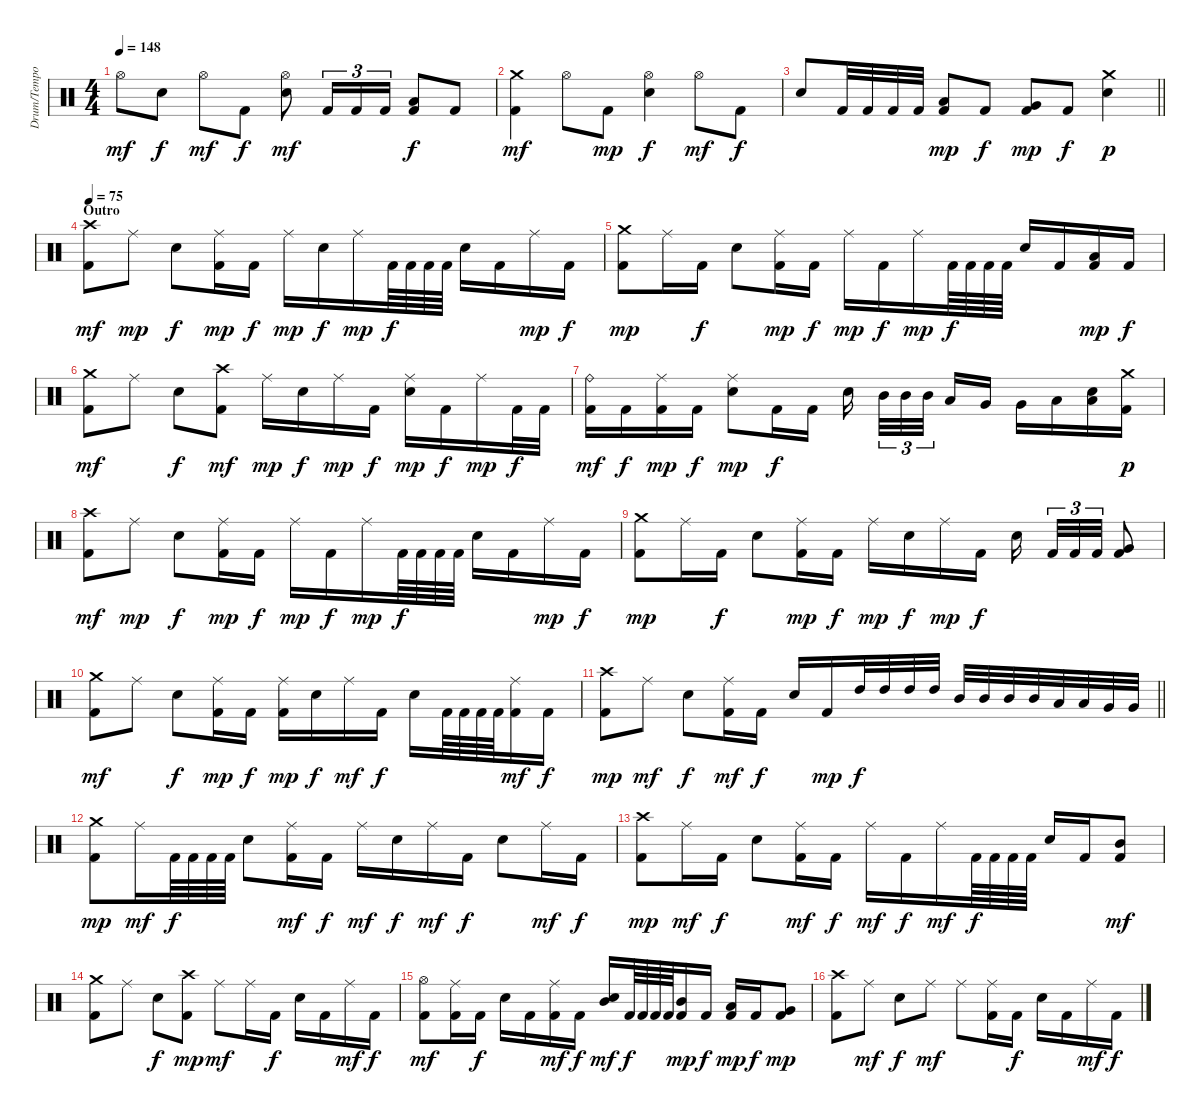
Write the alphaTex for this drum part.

\track ("Drum/Tempo" "Drum/Tempo") {instrument percussion}
\staff {score}
\articulation defaults
\ts (4 4)
\tempo 148
\clef neutral
\ks c "Hi-Hat (open)".8{dy mf} "Electric Snare (hit)".8{dy f} "Hi-Hat (open)".8{dy mf} "Kick (hit) 2".8{dy f}
("Electric Snare (hit)" "Hi-Hat (open)").8{dy mf} "Kick (hit) 2".16{tu (3 2)} "Kick (hit) 2".16{tu (3 2)} "Kick (hit) 2".16{tu (3 2)} ("Kick (hit) 2" "Low Tom (hit)").8{dy f} "Kick (hit) 2".8 |
("Kick (hit) 2" "Crash medium (hit)").4{dy mf} "Hi-Hat (open)".8 "Kick (hit) 2".8{dy mp} ("Electric Snare (hit)" "Hi-Hat (open)").4{dy f} "Hi-Hat (open)".8{dy mf} "Kick (hit) 2".8{dy f} |
\barLineRight lightlight "Electric Snare (hit)".8 "Kick (hit) 2".32 "Kick (hit) 2".32 "Kick (hit) 2".32 "Kick (hit) 2".32
("Kick (hit) 2" "Low Tom (hit)").8{dy mp} "Kick (hit) 2".8{dy f} ("Kick (hit) 2" "Very Low Tom (hit)").8{dy mp} "Kick (hit) 2".8{dy f} ("Electric Snare (hit)" "Crash medium (hit)").4{dy p} |
\section ("" "Outro")
\tempo 75
("Kick (hit) 2" "Crash high (hit)").8{dy mf} "Ride (middle)".8{dy mp} "Electric Snare (hit)".8{dy f} ("Kick (hit) 2" "Ride (middle)").16{dy mp} "Kick (hit) 2".16{dy f} "Ride (middle)".16{dy mp} "Electric Snare (hit)".16{dy f} "Ride (middle)".16{dy mp} "Kick (hit) 2".64{dy f} "Kick (hit) 2".64 "Kick (hit) 2".64 "Kick (hit) 2".64 "Electric Snare (hit)".16 "Kick (hit) 2".16 "Ride (middle)".16{dy mp} "Kick (hit) 2".16{dy f} |
("Kick (hit) 2" "Crash medium (hit)").8{dy mp} "Ride (middle)".16 "Kick (hit) 2".16{dy f} "Electric Snare (hit)".8 ("Kick (hit) 2" "Ride (middle)").16{dy mp} "Kick (hit) 2".16{dy f} "Ride (middle)".16{dy mp} "Kick (hit) 2".16{dy f} "Ride (middle)".16{dy mp} "Kick (hit) 2".64{dy f} "Kick (hit) 2".64 "Kick (hit) 2".64 "Kick (hit) 2".64 "Electric Snare (hit)".16 "Kick (hit) 2".16 ("Kick (hit) 2" "Low Tom (hit)").16{dy mp} "Kick (hit) 2".16{dy f} |
("Kick (hit) 2" "Crash medium (hit)").8{dy mf} "Ride (middle)".8 "Electric Snare (hit)".8{dy f} ("Kick (hit) 2" "Crash high (hit)").8{dy mf} "Ride (middle)".16{dy mp} "Electric Snare (hit)".16{dy f} "Ride (middle)".16{dy mp} "Kick (hit) 2".16{dy f} ("Electric Snare (hit)" "Ride (middle)").16{dy mp} "Kick (hit) 2".16{dy f} "Ride (middle)".16{dy mp} "Kick (hit) 2".32{dy f} "Kick (hit) 2".32 |
("Kick (hit) 2" "Ride (bell)").16{dy mf} "Kick (hit) 2".16{dy f} ("Kick (hit) 2" "Ride (middle)").16{dy mp} "Kick (hit) 2".16{dy f} ("Electric Snare (hit)" "Ride (middle)").8{dy mp} "Kick (hit) 2".16{dy f} "Kick (hit) 2".16 "Electric Snare (hit)".16 "Mid Tom (hit)".32{tu (3 2)} "Mid Tom (hit)".32{tu (3 2)} "Mid Tom (hit)".32{tu (3 2)} "Low Tom (hit)".16 "Very Low Tom (hit)".16 "Very Low Tom (hit)".16 "Low Floor Tom (hit)".16 ("Electric Snare (hit)" "Low Floor Tom (hit)").16 ("Kick (hit) 2" "Crash medium (hit)").16{dy p} |
("Kick (hit) 2" "Crash high (hit)").8{dy mf} "Ride (middle)".8{dy mp} "Electric Snare (hit)".8{dy f} ("Kick (hit) 2" "Ride (middle)").16{dy mp} "Kick (hit) 2".16{dy f} "Ride (middle)".16{dy mp} "Kick (hit) 2".16{dy f} "Ride (middle)".16{dy mp} "Kick (hit) 2".64{dy f} "Kick (hit) 2".64 "Kick (hit) 2".64 "Kick (hit) 2".64 "Electric Snare (hit)".16 "Kick (hit) 2".16 "Ride (middle)".16{dy mp} "Kick (hit) 2".16{dy f} |
("Kick (hit) 2" "Crash medium (hit)").8{dy mp} "Ride (middle)".16 "Kick (hit) 2".16{dy f} "Electric Snare (hit)".8 ("Kick (hit) 2" "Ride (middle)").16{dy mp} "Kick (hit) 2".16{dy f} "Ride (middle)".16{dy mp} "Electric Snare (hit)".16{dy f} "Ride (middle)".16{dy mp} "Kick (hit) 2".16{dy f} "Electric Snare (hit)".16 "Kick (hit) 2".32{tu (3 2)} "Kick (hit) 2".32{tu (3 2)} "Kick (hit) 2".32{tu (3 2)} ("Kick (hit) 2" "Very Low Tom (hit)").8 |
("Kick (hit) 2" "Crash medium (hit)").8{dy mf} "Ride (middle)".8 "Electric Snare (hit)".8{dy f} ("Kick (hit) 2" "Ride (middle)").16{dy mp} "Kick (hit) 2".16{dy f} ("Kick (hit) 2" "Ride (middle)").16{dy mp} "Electric Snare (hit)".16{dy f} "Ride (middle)".16{dy mf} "Kick (hit) 2".16{dy f} "Electric Snare (hit)".16 "Kick (hit) 2".64 "Kick (hit) 2".64 "Kick (hit) 2".64 "Kick (hit) 2".64 ("Kick (hit) 2" "Ride (middle)").16{dy mf} "Kick (hit) 2".16{dy f} |
\barLineRight lightlight
("Kick (hit) 2" "Crash high (hit)").8{dy mp} "Ride (middle)".8{dy mf} "Electric Snare (hit)".8{dy f} ("Kick (hit) 2" "Ride (middle)").16{dy mf} "Kick (hit) 2".16{dy f} "Electric Snare (hit)".16 "Kick (hit) 2".16{dy mp} "High Tom (hit)".32{dy f balance 16} "High Tom (hit)".32 "High Tom (hit)".32 "High Tom (hit)".32 "Mid Tom (hit)".32{balance 13} "Mid Tom (hit)".32 "Mid Tom (hit)".32 "Mid Tom (hit)".32 "Low Tom (hit)".32{balance 10} "Low Tom (hit)".32 "Very Low Tom (hit)".32{balance 8} "Very Low Tom (hit)".32 |
("Kick (hit) 2" "Crash medium (hit)").8{dy mp} "Ride (middle)".16{dy mf} "Kick (hit) 2".64{dy f} "Kick (hit) 2".64 "Kick (hit) 2".64 "Kick (hit) 2".64 "Electric Snare (hit)".8 ("Kick (hit) 2" "Ride (middle)").16{dy mf} "Kick (hit) 2".16{dy f} "Ride (middle)".16{dy mf} "Electric Snare (hit)".16{dy f} "Ride (middle)".16{dy mf} "Kick (hit) 2".16{dy f} "Electric Snare (hit)".8 "Ride (middle)".16{dy mf} "Kick (hit) 2".16{dy f} |
("Kick (hit) 2" "Crash high (hit)").8{dy mp} "Ride (middle)".16{dy mf} "Kick (hit) 2".16{dy f} "Electric Snare (hit)".8 ("Kick (hit) 2" "Ride (middle)").16{dy mf} "Kick (hit) 2".16{dy f} "Ride (middle)".16{dy mf} "Kick (hit) 2".16{dy f} "Ride (middle)".16{dy mf} "Kick (hit) 2".64{dy f} "Kick (hit) 2".64 "Kick (hit) 2".64 "Kick (hit) 2".64 "Electric Snare (hit)".16 "Kick (hit) 2".16 ("Kick (hit) 2" "Mid Tom (hit)").8{dy mf} |
("Kick (hit) 2" "Crash medium (hit)").8 "Ride (middle)".8 "Electric Snare (hit)".8{dy f} ("Kick (hit) 2" "Crash high (hit)").8{dy mp} "Ride (middle)".8{dy mf} "Ride (middle)".16 "Kick (hit) 2".16{dy f} "Electric Snare (hit)".16 "Kick (hit) 2".16 "Ride (middle)".16{dy mf} "Kick (hit) 2".16{dy f} |
("Kick (hit) 2" "Hi-Hat (open)").8{dy mf} ("Kick (hit) 2" "Ride (middle)").16 "Kick (hit) 2".16{dy f} "Electric Snare (hit)".16 "Kick (hit) 2".16 ("Kick (hit) 2" "Ride (middle)").16{dy mf} "Kick (hit) 2".16{dy f} ("Electric Snare (hit)" "Mid Tom (hit)").16{dy mf} "Kick (hit) 2".64{dy f} "Kick (hit) 2".64 "Kick (hit) 2".64 "Kick (hit) 2".64 ("Kick (hit) 2" "Mid Tom (hit)").16{dy mp} "Kick (hit) 2".16{dy f} ("Kick (hit) 2" "Low Tom (hit)").16{dy mp} "Kick (hit) 2".16{dy f} ("Kick (hit) 2" "Very Low Tom (hit)").8{dy mp} |
("Kick (hit) 2" "Crash high (hit)").8 "Ride (middle)".8{dy mf} "Electric Snare (hit)".8{dy f} "Ride (middle)".8{dy mf} "Ride (middle)".8 ("Kick (hit) 2" "Ride (middle)").16 "Kick (hit) 2".16{dy f} "Electric Snare (hit)".16 "Kick (hit) 2".16 "Ride (middle)".16{dy mf} "Kick (hit) 2".16{dy f}
